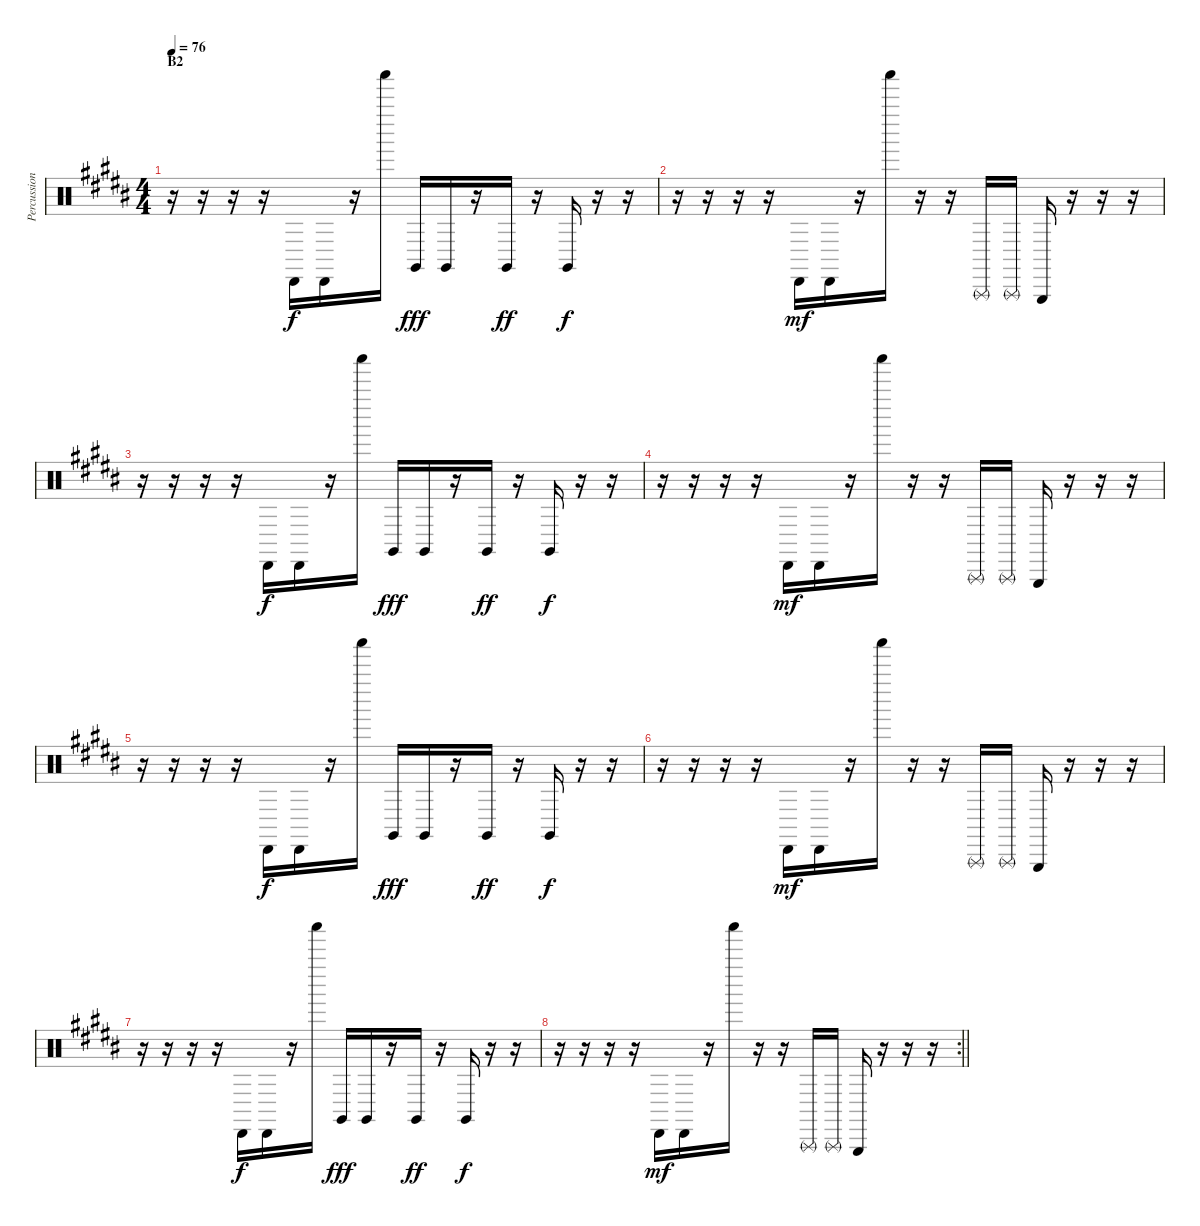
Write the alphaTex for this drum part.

\track ("Percussion" "Percussion") {instrument percussion}
\staff {score}
\articulation defaults
\ts (4 4)
\section ("" "B2")
\tempo 76
\clef neutral
\ks b
r.16{dy mf} r.16 r.16 r.16 "Cabasa (hit)".16{dy f} "Cabasa (hit)".16 r.16 "Shaker (hit)".16 "Claves (hit)".16{dy fff} "Claves (hit)".16 r.16 "Claves (hit)".16{dy ff} r.16 "Claves (hit)".16{dy f} r.16 r.16 |
r.16 r.16 r.16 r.16 "Cabasa (hit)".16{dy mf} "Cabasa (hit)".16 r.16 "Shaker (hit)".16 r.16 r.16 "Triangle (rnute)".16 "Triangle (rnute)".16 "Triangle (hit)".16 r.16 r.16 r.16 |
r.16 r.16 r.16 r.16 "Cabasa (hit)".16{dy f} "Cabasa (hit)".16 r.16 "Shaker (hit)".16 "Claves (hit)".16{dy fff} "Claves (hit)".16 r.16 "Claves (hit)".16{dy ff} r.16 "Claves (hit)".16{dy f} r.16 r.16 |
r.16 r.16 r.16 r.16 "Cabasa (hit)".16{dy mf} "Cabasa (hit)".16 r.16 "Shaker (hit)".16 r.16 r.16 "Triangle (rnute)".16 "Triangle (rnute)".16 "Triangle (hit)".16 r.16 r.16 r.16 |
r.16 r.16 r.16 r.16 "Cabasa (hit)".16{dy f} "Cabasa (hit)".16 r.16 "Shaker (hit)".16 "Claves (hit)".16{dy fff} "Claves (hit)".16 r.16 "Claves (hit)".16{dy ff} r.16 "Claves (hit)".16{dy f} r.16 r.16 |
r.16 r.16 r.16 r.16 "Cabasa (hit)".16{dy mf} "Cabasa (hit)".16 r.16 "Shaker (hit)".16 r.16 r.16 "Triangle (rnute)".16 "Triangle (rnute)".16 "Triangle (hit)".16 r.16 r.16 r.16 |
r.16 r.16 r.16 r.16 "Cabasa (hit)".16{dy f} "Cabasa (hit)".16 r.16 "Shaker (hit)".16 "Claves (hit)".16{dy fff} "Claves (hit)".16 r.16 "Claves (hit)".16{dy ff} r.16 "Claves (hit)".16{dy f} r.16 r.16 |
\rc 2
\barLineRight lightlight
r.16 r.16 r.16 r.16 "Cabasa (hit)".16{dy mf} "Cabasa (hit)".16 r.16 "Shaker (hit)".16 r.16 r.16 "Triangle (rnute)".16 "Triangle (rnute)".16 "Triangle (hit)".16 r.16 r.16 r.16
